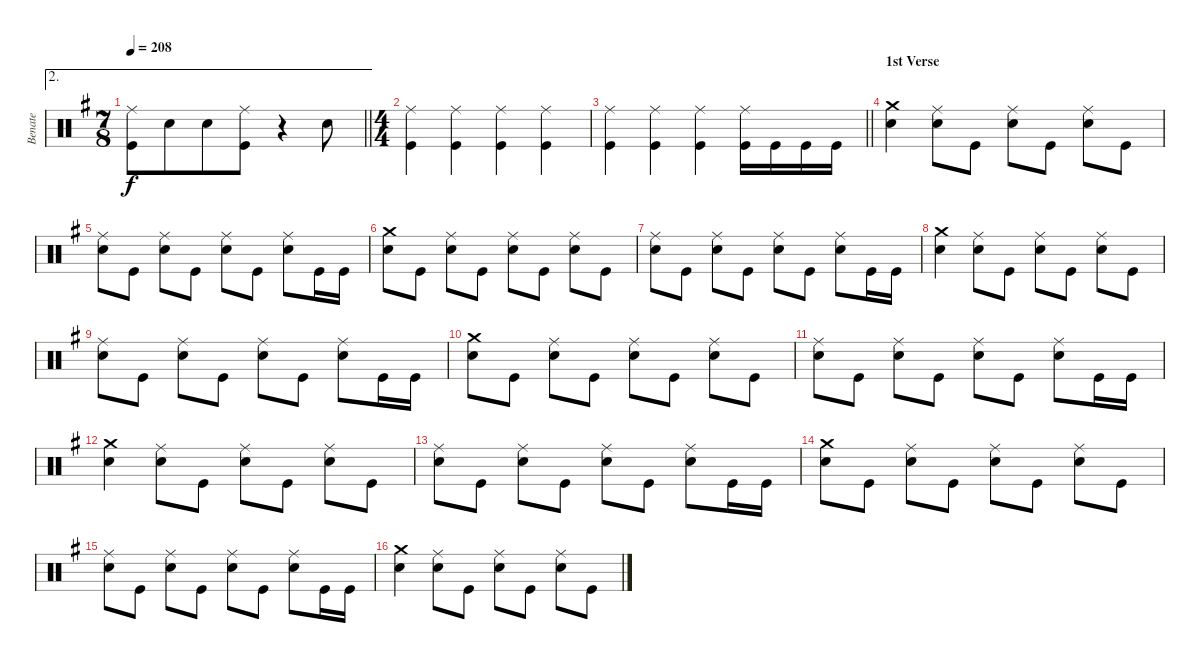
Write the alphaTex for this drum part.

\track ("Benate" "Benate") {instrument percussion}
\staff {score}
\articulation defaults
\ae 2
\ts (7 8)
\tempo 208
\clef neutral
\barLineRight lightlight
\ks g
("Ride (middle)" "Kick (hit)").8{dy f} "Snare (hit) 2".8 "Snare (hit) 2".8 ("Ride (middle)" "Kick (hit)").8 r.4 "Snare (hit) 2".8 |
\ts (4 4)
("Ride (middle)" "Kick (hit)").4 ("Ride (middle)" "Kick (hit)").4 ("Ride (middle)" "Kick (hit)").4 ("Ride (middle)" "Kick (hit)").4 |
\barLineRight lightlight
("Ride (middle)" "Kick (hit)").4 ("Ride (middle)" "Kick (hit)").4 ("Ride (middle)" "Kick (hit)").4 ("Ride (middle)" "Kick (hit)").16 "Kick (hit)".16 "Kick (hit)".16 "Kick (hit)".16 |
\section ("" "1st Verse")
("Crash medium (hit)" "Snare (hit) 2").4 ("Ride (middle)" "Snare (hit) 2").8 "Kick (hit)".8 ("Ride (middle)" "Snare (hit) 2").8 "Kick (hit)".8 ("Ride (middle)" "Snare (hit) 2").8 "Kick (hit)".8 |
("Ride (middle)" "Snare (hit) 2").8 "Kick (hit)".8 ("Ride (middle)" "Snare (hit) 2").8 "Kick (hit)".8 ("Ride (middle)" "Snare (hit) 2").8 "Kick (hit)".8 ("Ride (middle)" "Snare (hit) 2").8 "Kick (hit)".16 "Kick (hit)".16 |
("Crash medium (hit)" "Snare (hit) 2").8 "Kick (hit)".8 ("Ride (middle)" "Snare (hit) 2").8 "Kick (hit)".8 ("Ride (middle)" "Snare (hit) 2").8 "Kick (hit)".8 ("Ride (middle)" "Snare (hit) 2").8 "Kick (hit)".8 |
("Ride (middle)" "Snare (hit) 2").8 "Kick (hit)".8 ("Ride (middle)" "Snare (hit) 2").8 "Kick (hit)".8 ("Ride (middle)" "Snare (hit) 2").8 "Kick (hit)".8 ("Ride (middle)" "Snare (hit) 2").8 "Kick (hit)".16 "Kick (hit)".16 |
("Crash medium (hit)" "Snare (hit) 2").4 ("Ride (middle)" "Snare (hit) 2").8 "Kick (hit)".8 ("Ride (middle)" "Snare (hit) 2").8 "Kick (hit)".8 ("Ride (middle)" "Snare (hit) 2").8 "Kick (hit)".8 |
("Ride (middle)" "Snare (hit) 2").8 "Kick (hit)".8 ("Ride (middle)" "Snare (hit) 2").8 "Kick (hit)".8 ("Ride (middle)" "Snare (hit) 2").8 "Kick (hit)".8 ("Ride (middle)" "Snare (hit) 2").8 "Kick (hit)".16 "Kick (hit)".16 |
("Crash medium (hit)" "Snare (hit) 2").8 "Kick (hit)".8 ("Ride (middle)" "Snare (hit) 2").8 "Kick (hit)".8 ("Ride (middle)" "Snare (hit) 2").8 "Kick (hit)".8 ("Ride (middle)" "Snare (hit) 2").8 "Kick (hit)".8 |
("Ride (middle)" "Snare (hit) 2").8 "Kick (hit)".8 ("Ride (middle)" "Snare (hit) 2").8 "Kick (hit)".8 ("Ride (middle)" "Snare (hit) 2").8 "Kick (hit)".8 ("Ride (middle)" "Snare (hit) 2").8 "Kick (hit)".16 "Kick (hit)".16 |
("Crash medium (hit)" "Snare (hit) 2").4 ("Ride (middle)" "Snare (hit) 2").8 "Kick (hit)".8 ("Ride (middle)" "Snare (hit) 2").8 "Kick (hit)".8 ("Ride (middle)" "Snare (hit) 2").8 "Kick (hit)".8 |
("Ride (middle)" "Snare (hit) 2").8 "Kick (hit)".8 ("Ride (middle)" "Snare (hit) 2").8 "Kick (hit)".8 ("Ride (middle)" "Snare (hit) 2").8 "Kick (hit)".8 ("Ride (middle)" "Snare (hit) 2").8 "Kick (hit)".16 "Kick (hit)".16 |
("Crash medium (hit)" "Snare (hit) 2").8 "Kick (hit)".8 ("Ride (middle)" "Snare (hit) 2").8 "Kick (hit)".8 ("Ride (middle)" "Snare (hit) 2").8 "Kick (hit)".8 ("Ride (middle)" "Snare (hit) 2").8 "Kick (hit)".8 |
("Ride (middle)" "Snare (hit) 2").8 "Kick (hit)".8 ("Ride (middle)" "Snare (hit) 2").8 "Kick (hit)".8 ("Ride (middle)" "Snare (hit) 2").8 "Kick (hit)".8 ("Ride (middle)" "Snare (hit) 2").8 "Kick (hit)".16 "Kick (hit)".16 |
("Crash medium (hit)" "Snare (hit) 2").4 ("Ride (middle)" "Snare (hit) 2").8 "Kick (hit)".8 ("Ride (middle)" "Snare (hit) 2").8 "Kick (hit)".8 ("Ride (middle)" "Snare (hit) 2").8 "Kick (hit)".8
